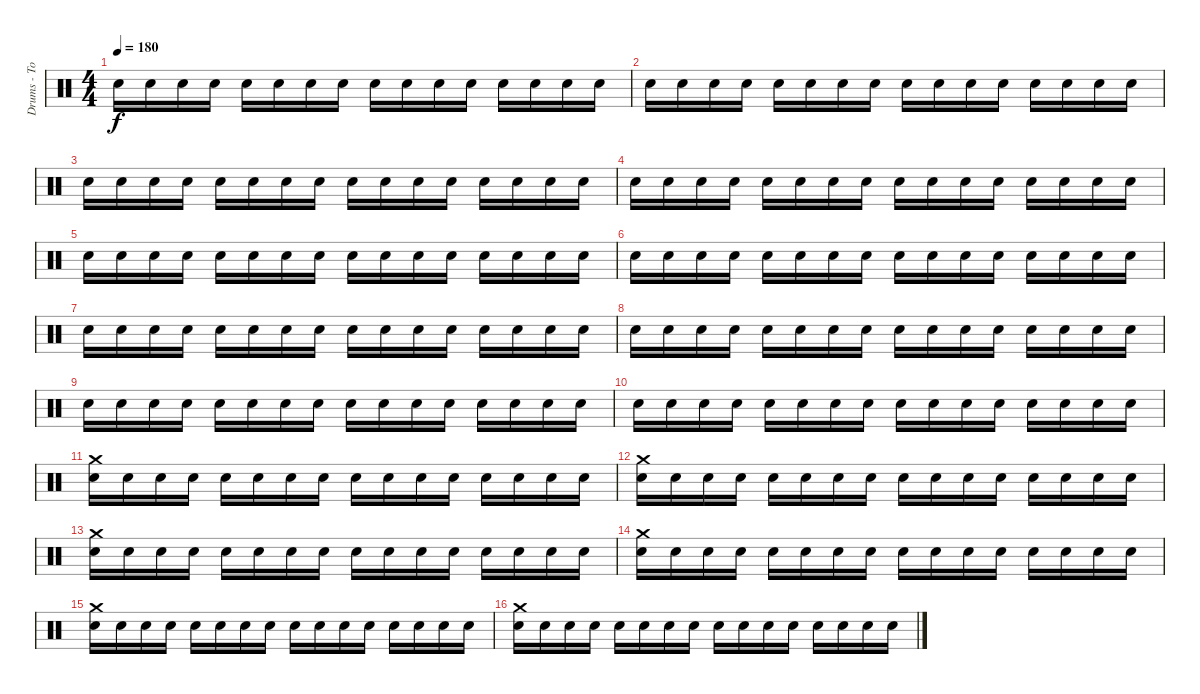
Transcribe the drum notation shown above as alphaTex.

\track ("Drums - Tom" "Drums - To") {instrument percussion}
\staff {score}
\articulation defaults
\ts (4 4)
\tempo 180
\clef neutral
\ks c "Snare (hit) 2".16{dy f} "Snare (hit) 2".16 "Snare (hit) 2".16 "Snare (hit) 2".16 "Snare (hit) 2".16 "Snare (hit) 2".16 "Snare (hit) 2".16 "Snare (hit) 2".16 "Snare (hit) 2".16 "Snare (hit) 2".16 "Snare (hit) 2".16 "Snare (hit) 2".16 "Snare (hit) 2".16 "Snare (hit) 2".16 "Snare (hit) 2".16 "Snare (hit) 2".16
|
"Snare (hit) 2".16 "Snare (hit) 2".16 "Snare (hit) 2".16 "Snare (hit) 2".16 "Snare (hit) 2".16 "Snare (hit) 2".16 "Snare (hit) 2".16 "Snare (hit) 2".16 "Snare (hit) 2".16 "Snare (hit) 2".16 "Snare (hit) 2".16 "Snare (hit) 2".16 "Snare (hit) 2".16 "Snare (hit) 2".16 "Snare (hit) 2".16 "Snare (hit) 2".16 |
"Snare (hit) 2".16 "Snare (hit) 2".16 "Snare (hit) 2".16 "Snare (hit) 2".16 "Snare (hit) 2".16 "Snare (hit) 2".16 "Snare (hit) 2".16 "Snare (hit) 2".16 "Snare (hit) 2".16 "Snare (hit) 2".16 "Snare (hit) 2".16 "Snare (hit) 2".16 "Snare (hit) 2".16 "Snare (hit) 2".16 "Snare (hit) 2".16 "Snare (hit) 2".16 |
"Snare (hit) 2".16 "Snare (hit) 2".16 "Snare (hit) 2".16 "Snare (hit) 2".16 "Snare (hit) 2".16 "Snare (hit) 2".16 "Snare (hit) 2".16 "Snare (hit) 2".16 "Snare (hit) 2".16 "Snare (hit) 2".16 "Snare (hit) 2".16 "Snare (hit) 2".16 "Snare (hit) 2".16 "Snare (hit) 2".16 "Snare (hit) 2".16 "Snare (hit) 2".16 |
"Snare (hit) 2".16 "Snare (hit) 2".16 "Snare (hit) 2".16 "Snare (hit) 2".16 "Snare (hit) 2".16 "Snare (hit) 2".16 "Snare (hit) 2".16 "Snare (hit) 2".16 "Snare (hit) 2".16 "Snare (hit) 2".16 "Snare (hit) 2".16 "Snare (hit) 2".16 "Snare (hit) 2".16 "Snare (hit) 2".16 "Snare (hit) 2".16 "Snare (hit) 2".16 |
"Snare (hit) 2".16 "Snare (hit) 2".16 "Snare (hit) 2".16 "Snare (hit) 2".16 "Snare (hit) 2".16 "Snare (hit) 2".16 "Snare (hit) 2".16 "Snare (hit) 2".16 "Snare (hit) 2".16 "Snare (hit) 2".16 "Snare (hit) 2".16 "Snare (hit) 2".16 "Snare (hit) 2".16 "Snare (hit) 2".16 "Snare (hit) 2".16 "Snare (hit) 2".16 |
"Snare (hit) 2".16 "Snare (hit) 2".16 "Snare (hit) 2".16 "Snare (hit) 2".16 "Snare (hit) 2".16 "Snare (hit) 2".16 "Snare (hit) 2".16 "Snare (hit) 2".16 "Snare (hit) 2".16 "Snare (hit) 2".16 "Snare (hit) 2".16 "Snare (hit) 2".16 "Snare (hit) 2".16 "Snare (hit) 2".16 "Snare (hit) 2".16 "Snare (hit) 2".16 |
"Snare (hit) 2".16 "Snare (hit) 2".16 "Snare (hit) 2".16 "Snare (hit) 2".16 "Snare (hit) 2".16 "Snare (hit) 2".16 "Snare (hit) 2".16 "Snare (hit) 2".16 "Snare (hit) 2".16 "Snare (hit) 2".16 "Snare (hit) 2".16 "Snare (hit) 2".16 "Snare (hit) 2".16 "Snare (hit) 2".16 "Snare (hit) 2".16 "Snare (hit) 2".16 |
"Snare (hit) 2".16 "Snare (hit) 2".16 "Snare (hit) 2".16 "Snare (hit) 2".16 "Snare (hit) 2".16 "Snare (hit) 2".16 "Snare (hit) 2".16 "Snare (hit) 2".16 "Snare (hit) 2".16 "Snare (hit) 2".16 "Snare (hit) 2".16 "Snare (hit) 2".16 "Snare (hit) 2".16 "Snare (hit) 2".16 "Snare (hit) 2".16 "Snare (hit) 2".16 |
"Snare (hit) 2".16 "Snare (hit) 2".16 "Snare (hit) 2".16 "Snare (hit) 2".16 "Snare (hit) 2".16 "Snare (hit) 2".16 "Snare (hit) 2".16 "Snare (hit) 2".16 "Snare (hit) 2".16 "Snare (hit) 2".16 "Snare (hit) 2".16 "Snare (hit) 2".16 "Snare (hit) 2".16 "Snare (hit) 2".16 "Snare (hit) 2".16 "Snare (hit) 2".16 |
("Crash medium (hit)" "Snare (hit) 2").16 "Snare (hit) 2".16 "Snare (hit) 2".16 "Snare (hit) 2".16 "Snare (hit) 2".16 "Snare (hit) 2".16 "Snare (hit) 2".16 "Snare (hit) 2".16 "Snare (hit) 2".16 "Snare (hit) 2".16 "Snare (hit) 2".16 "Snare (hit) 2".16 "Snare (hit) 2".16 "Snare (hit) 2".16 "Snare (hit) 2".16 "Snare (hit) 2".16 |
("Crash medium (hit)" "Snare (hit) 2").16 "Snare (hit) 2".16 "Snare (hit) 2".16 "Snare (hit) 2".16 "Snare (hit) 2".16 "Snare (hit) 2".16 "Snare (hit) 2".16 "Snare (hit) 2".16 "Snare (hit) 2".16 "Snare (hit) 2".16 "Snare (hit) 2".16 "Snare (hit) 2".16 "Snare (hit) 2".16 "Snare (hit) 2".16 "Snare (hit) 2".16 "Snare (hit) 2".16 |
("Crash medium (hit)" "Snare (hit) 2").16 "Snare (hit) 2".16 "Snare (hit) 2".16 "Snare (hit) 2".16 "Snare (hit) 2".16 "Snare (hit) 2".16 "Snare (hit) 2".16 "Snare (hit) 2".16 "Snare (hit) 2".16 "Snare (hit) 2".16 "Snare (hit) 2".16 "Snare (hit) 2".16 "Snare (hit) 2".16 "Snare (hit) 2".16 "Snare (hit) 2".16 "Snare (hit) 2".16 |
("Crash medium (hit)" "Snare (hit) 2").16 "Snare (hit) 2".16 "Snare (hit) 2".16 "Snare (hit) 2".16 "Snare (hit) 2".16 "Snare (hit) 2".16 "Snare (hit) 2".16 "Snare (hit) 2".16 "Snare (hit) 2".16 "Snare (hit) 2".16 "Snare (hit) 2".16 "Snare (hit) 2".16 "Snare (hit) 2".16 "Snare (hit) 2".16 "Snare (hit) 2".16 "Snare (hit) 2".16 |
("Crash medium (hit)" "Snare (hit) 2").16 "Snare (hit) 2".16 "Snare (hit) 2".16 "Snare (hit) 2".16 "Snare (hit) 2".16 "Snare (hit) 2".16 "Snare (hit) 2".16 "Snare (hit) 2".16 "Snare (hit) 2".16 "Snare (hit) 2".16 "Snare (hit) 2".16 "Snare (hit) 2".16 "Snare (hit) 2".16 "Snare (hit) 2".16 "Snare (hit) 2".16 "Snare (hit) 2".16 |
("Crash medium (hit)" "Snare (hit) 2").16 "Snare (hit) 2".16 "Snare (hit) 2".16 "Snare (hit) 2".16 "Snare (hit) 2".16 "Snare (hit) 2".16 "Snare (hit) 2".16 "Snare (hit) 2".16 "Snare (hit) 2".16 "Snare (hit) 2".16 "Snare (hit) 2".16 "Snare (hit) 2".16 "Snare (hit) 2".16 "Snare (hit) 2".16 "Snare (hit) 2".16 "Snare (hit) 2".16
